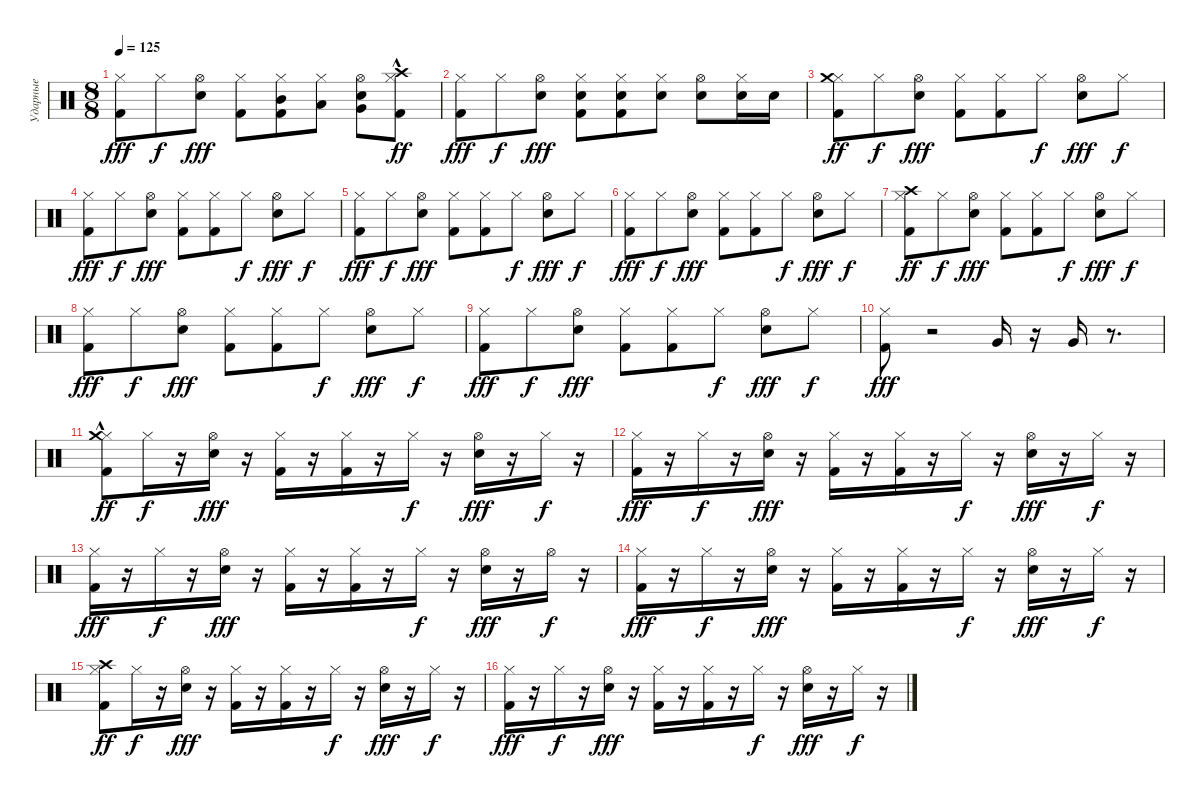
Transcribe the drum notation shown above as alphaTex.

\track ("Ударные" "Ударные") {instrument percussion}
\staff {score}
\articulation defaults
\ts (8 8)
\tempo 125
\clef neutral
\ks c
("Kick (hit) 2" "Hi-Hat (closed)").8{dy fff} "Hi-Hat (closed)".8{dy f} ("Hi-Hat (open)" "Snare (hit) 2").8{dy fff} ("Kick (hit) 2" "Hi-Hat (closed)").8 ("Kick (hit) 2" "Hi-Hat (closed)" "Mid Tom (hit)").8 ("Hi-Hat (closed)" "Low Tom (hit)").8 ("Hi-Hat (open)" "Snare (hit) 2" "Very Low Tom (hit)").8 ("Kick (hit) 2" "Hi-Hat (closed)" "Crash high (hit)"{hac}).8{dy ff} |
("Kick (hit) 2" "Hi-Hat (closed)").8{dy fff} "Hi-Hat (closed)".8{dy f} ("Hi-Hat (open)" "Snare (hit) 2").8{dy fff} ("Kick (hit) 2" "Hi-Hat (closed)" "Snare (hit) 2").8 ("Kick (hit) 2" "Hi-Hat (closed)" "Snare (hit) 2").8 ("Hi-Hat (closed)" "Snare (hit) 2").8 ("Hi-Hat (open)" "Snare (hit) 2").8 ("Hi-Hat (closed)" "Snare (hit) 2").16 "Snare (hit) 2".16 |
("Kick (hit) 2" "Hi-Hat (closed)" "Crash medium (hit)").8{dy ff} "Hi-Hat (closed)".8{dy f} ("Hi-Hat (open)" "Snare (hit) 2").8{dy fff} ("Kick (hit) 2" "Hi-Hat (closed)").8 ("Kick (hit) 2" "Hi-Hat (closed)").8 "Hi-Hat (closed)".8{dy f} ("Hi-Hat (open)" "Snare (hit) 2").8{dy fff} "Hi-Hat (closed)".8{dy f} |
("Kick (hit) 2" "Hi-Hat (closed)").8{dy fff} "Hi-Hat (closed)".8{dy f} ("Hi-Hat (open)" "Snare (hit) 2").8{dy fff} ("Kick (hit) 2" "Hi-Hat (closed)").8 ("Kick (hit) 2" "Hi-Hat (closed)").8 "Hi-Hat (closed)".8{dy f} ("Hi-Hat (open)" "Snare (hit) 2").8{dy fff} "Hi-Hat (closed)".8{dy f} |
("Kick (hit) 2" "Hi-Hat (closed)").8{dy fff} "Hi-Hat (closed)".8{dy f} ("Hi-Hat (open)" "Snare (hit) 2").8{dy fff} ("Kick (hit) 2" "Hi-Hat (closed)").8 ("Kick (hit) 2" "Hi-Hat (closed)").8 "Hi-Hat (closed)".8{dy f} ("Hi-Hat (open)" "Snare (hit) 2").8{dy fff} "Hi-Hat (closed)".8{dy f} |
("Kick (hit) 2" "Hi-Hat (closed)").8{dy fff} "Hi-Hat (closed)".8{dy f} ("Hi-Hat (open)" "Snare (hit) 2").8{dy fff} ("Kick (hit) 2" "Hi-Hat (closed)").8 ("Kick (hit) 2" "Hi-Hat (closed)").8 "Hi-Hat (closed)".8{dy f} ("Hi-Hat (open)" "Snare (hit) 2").8{dy fff} "Hi-Hat (closed)".8{dy f} |
("Kick (hit) 2" "Hi-Hat (closed)" "Crash high (hit)").8{dy ff} "Hi-Hat (closed)".8{dy f} ("Hi-Hat (open)" "Snare (hit) 2").8{dy fff} ("Kick (hit) 2" "Hi-Hat (closed)").8 ("Kick (hit) 2" "Hi-Hat (closed)").8 "Hi-Hat (closed)".8{dy f} ("Hi-Hat (open)" "Snare (hit) 2").8{dy fff} "Hi-Hat (closed)".8{dy f} |
("Kick (hit) 2" "Hi-Hat (closed)").8{dy fff} "Hi-Hat (closed)".8{dy f} ("Hi-Hat (open)" "Snare (hit) 2").8{dy fff} ("Kick (hit) 2" "Hi-Hat (closed)").8 ("Kick (hit) 2" "Hi-Hat (closed)").8 "Hi-Hat (closed)".8{dy f} ("Hi-Hat (open)" "Snare (hit) 2").8{dy fff} "Hi-Hat (closed)".8{dy f} |
("Kick (hit) 2" "Hi-Hat (closed)").8{dy fff} "Hi-Hat (closed)".8{dy f} ("Hi-Hat (open)" "Snare (hit) 2").8{dy fff} ("Kick (hit) 2" "Hi-Hat (closed)").8 ("Kick (hit) 2" "Hi-Hat (closed)").8 "Hi-Hat (closed)".8{dy f} ("Hi-Hat (open)" "Snare (hit) 2").8{dy fff} "Hi-Hat (closed)".8{dy f} |
("Kick (hit) 2" "Hi-Hat (closed)").8{dy fff} r.2 "Very Low Tom (hit)".16 r.16 "Very Low Tom (hit)".16 r.8{d} |
("Kick (hit) 2" "Hi-Hat (closed)" "Crash medium (hit)"{hac}).8{dy ff} "Hi-Hat (closed)".16{dy f} r.16 ("Hi-Hat (open)" "Snare (hit) 2").16{dy fff} r.16 ("Kick (hit) 2" "Hi-Hat (closed)").16 r.16 ("Kick (hit) 2" "Hi-Hat (closed)").16 r.16 "Hi-Hat (closed)".16{dy f} r.16 ("Hi-Hat (open)" "Snare (hit) 2").16{dy fff} r.16 "Hi-Hat (closed)".16{dy f} r.16 |
("Kick (hit) 2" "Hi-Hat (closed)").16{dy fff} r.16 "Hi-Hat (closed)".16{dy f} r.16 ("Hi-Hat (open)" "Snare (hit) 2").16{dy fff} r.16 ("Kick (hit) 2" "Hi-Hat (closed)").16 r.16 ("Kick (hit) 2" "Hi-Hat (closed)").16 r.16 "Hi-Hat (closed)".16{dy f} r.16 ("Hi-Hat (open)" "Snare (hit) 2").16{dy fff} r.16 "Hi-Hat (closed)".16{dy f} r.16 |
("Kick (hit) 2" "Hi-Hat (closed)").16{dy fff} r.16 "Hi-Hat (closed)".16{dy f} r.16 ("Hi-Hat (open)" "Snare (hit) 2").16{dy fff} r.16 ("Kick (hit) 2" "Hi-Hat (closed)").16 r.16 ("Kick (hit) 2" "Hi-Hat (closed)").16 r.16 "Hi-Hat (closed)".16{dy f} r.16 ("Hi-Hat (open)" "Snare (hit) 2").16{dy fff} r.16 "Hi-Hat (open)".16{dy f} r.16 |
("Kick (hit) 2" "Hi-Hat (closed)").16{dy fff} r.16 "Hi-Hat (closed)".16{dy f} r.16 ("Hi-Hat (open)" "Snare (hit) 2").16{dy fff} r.16 ("Kick (hit) 2" "Hi-Hat (closed)").16 r.16 ("Kick (hit) 2" "Hi-Hat (closed)").16 r.16 "Hi-Hat (closed)".16{dy f} r.16 ("Hi-Hat (open)" "Snare (hit) 2").16{dy fff} r.16 "Hi-Hat (closed)".16{dy f} r.16 |
("Kick (hit) 2" "Hi-Hat (closed)" "Crash high (hit)").8{dy ff} "Hi-Hat (closed)".16{dy f} r.16 ("Hi-Hat (open)" "Snare (hit) 2").16{dy fff} r.16 ("Kick (hit) 2" "Hi-Hat (closed)").16 r.16 ("Kick (hit) 2" "Hi-Hat (closed)").16 r.16 "Hi-Hat (closed)".16{dy f} r.16 ("Hi-Hat (open)" "Snare (hit) 2").16{dy fff} r.16 "Hi-Hat (closed)".16{dy f} r.16 |
("Kick (hit) 2" "Hi-Hat (closed)").16{dy fff} r.16 "Hi-Hat (closed)".16{dy f} r.16 ("Hi-Hat (open)" "Snare (hit) 2").16{dy fff} r.16 ("Kick (hit) 2" "Hi-Hat (closed)").16 r.16 ("Kick (hit) 2" "Hi-Hat (closed)").16 r.16 "Hi-Hat (closed)".16{dy f} r.16 ("Hi-Hat (open)" "Snare (hit) 2").16{dy fff} r.16 "Hi-Hat (closed)".16{dy f} r.16
